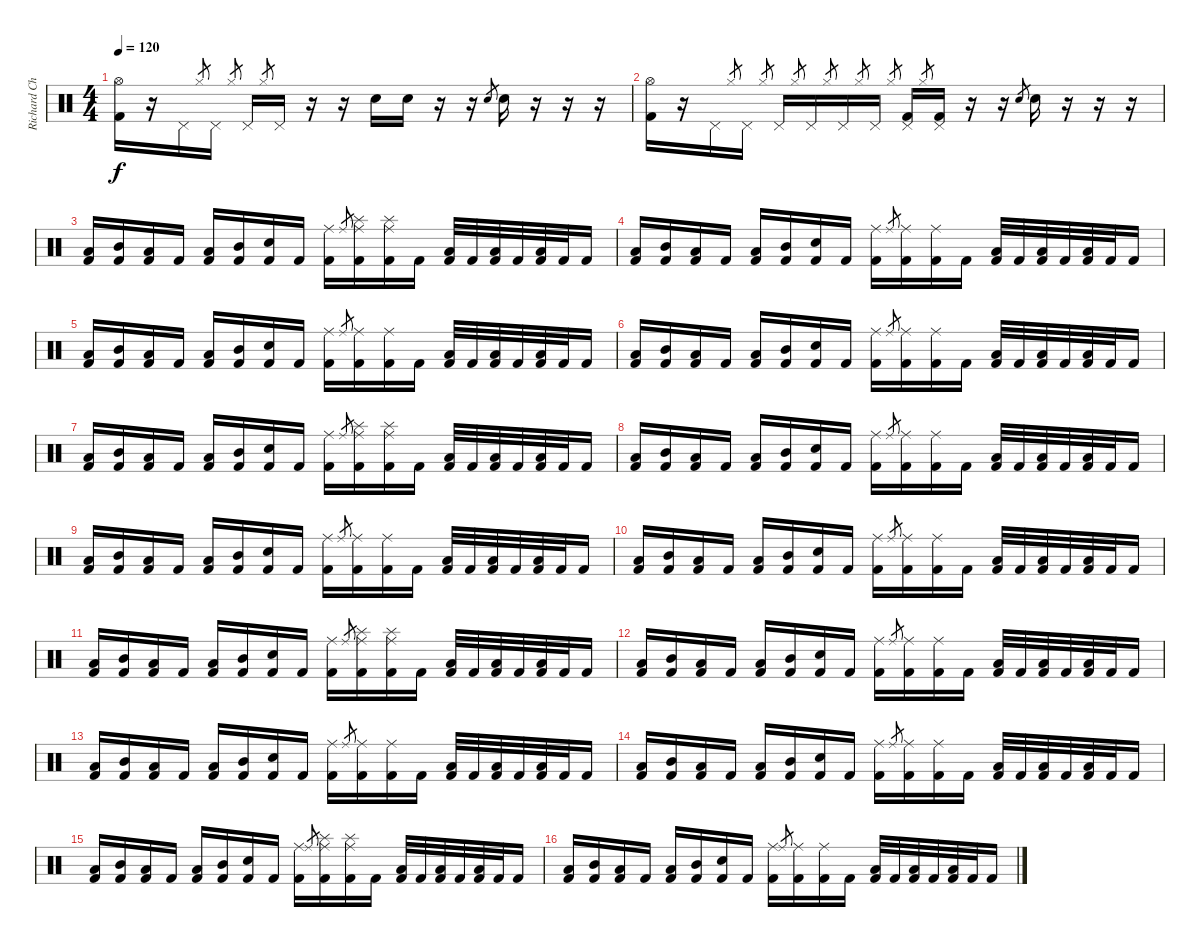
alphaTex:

\track ("Richard Christy" "Richard Ch") {instrument percussion}
\staff {score}
\articulation defaults
\ts (4 4)
\tempo 120
\clef neutral
\ks c
("Hi-Hat (open)" "Kick (hit) 2").16{dy f} r.16 "Pedal Hi-Hat (hit)".16 "Hi-Hat (closed)".8{gr} "Pedal Hi-Hat (hit)".16 "Hi-Hat (closed)".8{gr} "Pedal Hi-Hat (hit)".16 "Hi-Hat (closed)".8{gr} "Pedal Hi-Hat (hit)".16 r.16 r.16 "Snare (hit) 2".16 "Snare (hit) 2".16 r.16 r.16 "Snare (hit) 2".8{gr} "Snare (hit) 2".16 r.16 r.16 r.16 |
("Hi-Hat (open)" "Kick (hit) 2").16 r.16 "Pedal Hi-Hat (hit)".16 "Hi-Hat (closed)".8{gr} "Pedal Hi-Hat (hit)".16 "Hi-Hat (closed)".8{gr} "Pedal Hi-Hat (hit)".16 "Hi-Hat (closed)".8{gr} "Pedal Hi-Hat (hit)".16 "Hi-Hat (closed)".8{gr} "Pedal Hi-Hat (hit)".16 "Hi-Hat (closed)".8{gr} "Pedal Hi-Hat (hit)".16 "Hi-Hat (closed)".8{gr} ("Pedal Hi-Hat (hit)" "Kick (hit) 2").16 "Hi-Hat (closed)".8{gr} ("Pedal Hi-Hat (hit)" "Kick (hit) 2").16 r.16 r.16 "Snare (hit) 2".8{gr} "Snare (hit) 2".16 r.16 r.16 r.16 |
("Low Tom (hit)" "Kick (hit) 2").16 ("Mid Tom (hit)" "Kick (hit) 2").16 ("Low Tom (hit)" "Kick (hit) 2").16 "Kick (hit) 2".16 ("Low Tom (hit)" "Kick (hit) 2").16 ("Mid Tom (hit)" "Kick (hit) 2").16 ("Snare (hit) 2" "Kick (hit) 2").16 "Kick (hit) 2".16 ("Ride (middle)" "Kick (hit) 2").16 "Ride (middle)".8{gr} ("Ride (middle)" "Splash (hit)" "Kick (hit) 2").16 ("Ride (middle)" "Splash (hit)" "Kick (hit) 2").16 "Kick (hit) 2".16 ("Low Tom (hit)" "Kick (hit) 2").32 "Kick (hit) 2".32 ("Low Tom (hit)" "Kick (hit) 2").32 "Kick (hit) 2".32 ("Low Tom (hit)" "Kick (hit) 2").32 "Kick (hit) 2".32 "Kick (hit) 2".16 |
("Low Tom (hit)" "Kick (hit) 2").16 ("Mid Tom (hit)" "Kick (hit) 2").16 ("Low Tom (hit)" "Kick (hit) 2").16 "Kick (hit) 2".16 ("Low Tom (hit)" "Kick (hit) 2").16 ("Mid Tom (hit)" "Kick (hit) 2").16 ("Snare (hit) 2" "Kick (hit) 2").16 "Kick (hit) 2".16 ("Ride (middle)" "Kick (hit) 2").16 "Ride (middle)".8{gr} ("Ride (middle)" "Kick (hit) 2").16 ("Ride (middle)" "Kick (hit) 2").16 "Kick (hit) 2".16 ("Low Tom (hit)" "Kick (hit) 2").32 "Kick (hit) 2".32 ("Low Tom (hit)" "Kick (hit) 2").32 "Kick (hit) 2".32 ("Low Tom (hit)" "Kick (hit) 2").32 "Kick (hit) 2".32 "Kick (hit) 2".16 |
("Low Tom (hit)" "Kick (hit) 2").16 ("Mid Tom (hit)" "Kick (hit) 2").16 ("Low Tom (hit)" "Kick (hit) 2").16 "Kick (hit) 2".16 ("Low Tom (hit)" "Kick (hit) 2").16 ("Mid Tom (hit)" "Kick (hit) 2").16 ("Snare (hit) 2" "Kick (hit) 2").16 "Kick (hit) 2".16 ("Ride (middle)" "Kick (hit) 2").16 "Ride (middle)".8{gr} ("Ride (middle)" "Kick (hit) 2").16 ("Ride (middle)" "Kick (hit) 2").16 "Kick (hit) 2".16 ("Low Tom (hit)" "Kick (hit) 2").32 "Kick (hit) 2".32 ("Low Tom (hit)" "Kick (hit) 2").32 "Kick (hit) 2".32 ("Low Tom (hit)" "Kick (hit) 2").32 "Kick (hit) 2".32 "Kick (hit) 2".16 |
("Low Tom (hit)" "Kick (hit) 2").16 ("Mid Tom (hit)" "Kick (hit) 2").16 ("Low Tom (hit)" "Kick (hit) 2").16 "Kick (hit) 2".16 ("Low Tom (hit)" "Kick (hit) 2").16 ("Mid Tom (hit)" "Kick (hit) 2").16 ("Snare (hit) 2" "Kick (hit) 2").16 "Kick (hit) 2".16 ("Ride (middle)" "Kick (hit) 2").16 "Ride (middle)".8{gr} ("Ride (middle)" "Kick (hit) 2").16 ("Ride (middle)" "Kick (hit) 2").16 "Kick (hit) 2".16 ("Low Tom (hit)" "Kick (hit) 2").32 "Kick (hit) 2".32 ("Low Tom (hit)" "Kick (hit) 2").32 "Kick (hit) 2".32 ("Low Tom (hit)" "Kick (hit) 2").32 "Kick (hit) 2".32 "Kick (hit) 2".16 |
("Low Tom (hit)" "Kick (hit) 2").16 ("Mid Tom (hit)" "Kick (hit) 2").16 ("Low Tom (hit)" "Kick (hit) 2").16 "Kick (hit) 2".16 ("Low Tom (hit)" "Kick (hit) 2").16 ("Mid Tom (hit)" "Kick (hit) 2").16 ("Snare (hit) 2" "Kick (hit) 2").16 "Kick (hit) 2".16 ("Ride (middle)" "Kick (hit) 2").16 "Ride (middle)".8{gr} ("Ride (middle)" "Splash (hit)" "Kick (hit) 2").16 ("Ride (middle)" "Splash (hit)" "Kick (hit) 2").16 "Kick (hit) 2".16 ("Low Tom (hit)" "Kick (hit) 2").32 "Kick (hit) 2".32 ("Low Tom (hit)" "Kick (hit) 2").32 "Kick (hit) 2".32 ("Low Tom (hit)" "Kick (hit) 2").32 "Kick (hit) 2".32 "Kick (hit) 2".16 |
("Low Tom (hit)" "Kick (hit) 2").16 ("Mid Tom (hit)" "Kick (hit) 2").16 ("Low Tom (hit)" "Kick (hit) 2").16 "Kick (hit) 2".16 ("Low Tom (hit)" "Kick (hit) 2").16 ("Mid Tom (hit)" "Kick (hit) 2").16 ("Snare (hit) 2" "Kick (hit) 2").16 "Kick (hit) 2".16 ("Ride (middle)" "Kick (hit) 2").16 "Ride (middle)".8{gr} ("Ride (middle)" "Kick (hit) 2").16 ("Ride (middle)" "Kick (hit) 2").16 "Kick (hit) 2".16 ("Low Tom (hit)" "Kick (hit) 2").32 "Kick (hit) 2".32 ("Low Tom (hit)" "Kick (hit) 2").32 "Kick (hit) 2".32 ("Low Tom (hit)" "Kick (hit) 2").32 "Kick (hit) 2".32 "Kick (hit) 2".16 |
("Low Tom (hit)" "Kick (hit) 2").16 ("Mid Tom (hit)" "Kick (hit) 2").16 ("Low Tom (hit)" "Kick (hit) 2").16 "Kick (hit) 2".16 ("Low Tom (hit)" "Kick (hit) 2").16 ("Mid Tom (hit)" "Kick (hit) 2").16 ("Snare (hit) 2" "Kick (hit) 2").16 "Kick (hit) 2".16 ("Ride (middle)" "Kick (hit) 2").16 "Ride (middle)".8{gr} ("Ride (middle)" "Kick (hit) 2").16 ("Ride (middle)" "Kick (hit) 2").16 "Kick (hit) 2".16 ("Low Tom (hit)" "Kick (hit) 2").32 "Kick (hit) 2".32 ("Low Tom (hit)" "Kick (hit) 2").32 "Kick (hit) 2".32 ("Low Tom (hit)" "Kick (hit) 2").32 "Kick (hit) 2".32 "Kick (hit) 2".16 |
("Low Tom (hit)" "Kick (hit) 2").16 ("Mid Tom (hit)" "Kick (hit) 2").16 ("Low Tom (hit)" "Kick (hit) 2").16 "Kick (hit) 2".16 ("Low Tom (hit)" "Kick (hit) 2").16 ("Mid Tom (hit)" "Kick (hit) 2").16 ("Snare (hit) 2" "Kick (hit) 2").16 "Kick (hit) 2".16 ("Ride (middle)" "Kick (hit) 2").16 "Ride (middle)".8{gr} ("Ride (middle)" "Kick (hit) 2").16 ("Ride (middle)" "Kick (hit) 2").16 "Kick (hit) 2".16 ("Low Tom (hit)" "Kick (hit) 2").32 "Kick (hit) 2".32 ("Low Tom (hit)" "Kick (hit) 2").32 "Kick (hit) 2".32 ("Low Tom (hit)" "Kick (hit) 2").32 "Kick (hit) 2".32 "Kick (hit) 2".16 |
("Low Tom (hit)" "Kick (hit) 2").16 ("Mid Tom (hit)" "Kick (hit) 2").16 ("Low Tom (hit)" "Kick (hit) 2").16 "Kick (hit) 2".16 ("Low Tom (hit)" "Kick (hit) 2").16 ("Mid Tom (hit)" "Kick (hit) 2").16 ("Snare (hit) 2" "Kick (hit) 2").16 "Kick (hit) 2".16 ("Ride (middle)" "Kick (hit) 2").16 "Ride (middle)".8{gr} ("Ride (middle)" "Splash (hit)" "Kick (hit) 2").16 ("Ride (middle)" "Splash (hit)" "Kick (hit) 2").16 "Kick (hit) 2".16 ("Low Tom (hit)" "Kick (hit) 2").32 "Kick (hit) 2".32 ("Low Tom (hit)" "Kick (hit) 2").32 "Kick (hit) 2".32 ("Low Tom (hit)" "Kick (hit) 2").32 "Kick (hit) 2".32 "Kick (hit) 2".16 |
("Low Tom (hit)" "Kick (hit) 2").16 ("Mid Tom (hit)" "Kick (hit) 2").16 ("Low Tom (hit)" "Kick (hit) 2").16 "Kick (hit) 2".16 ("Low Tom (hit)" "Kick (hit) 2").16 ("Mid Tom (hit)" "Kick (hit) 2").16 ("Snare (hit) 2" "Kick (hit) 2").16 "Kick (hit) 2".16 ("Ride (middle)" "Kick (hit) 2").16 "Ride (middle)".8{gr} ("Ride (middle)" "Kick (hit) 2").16 ("Ride (middle)" "Kick (hit) 2").16 "Kick (hit) 2".16 ("Low Tom (hit)" "Kick (hit) 2").32 "Kick (hit) 2".32 ("Low Tom (hit)" "Kick (hit) 2").32 "Kick (hit) 2".32 ("Low Tom (hit)" "Kick (hit) 2").32 "Kick (hit) 2".32 "Kick (hit) 2".16 |
("Low Tom (hit)" "Kick (hit) 2").16 ("Mid Tom (hit)" "Kick (hit) 2").16 ("Low Tom (hit)" "Kick (hit) 2").16 "Kick (hit) 2".16 ("Low Tom (hit)" "Kick (hit) 2").16 ("Mid Tom (hit)" "Kick (hit) 2").16 ("Snare (hit) 2" "Kick (hit) 2").16 "Kick (hit) 2".16 ("Ride (middle)" "Kick (hit) 2").16 "Ride (middle)".8{gr} ("Ride (middle)" "Kick (hit) 2").16 ("Ride (middle)" "Kick (hit) 2").16 "Kick (hit) 2".16 ("Low Tom (hit)" "Kick (hit) 2").32 "Kick (hit) 2".32 ("Low Tom (hit)" "Kick (hit) 2").32 "Kick (hit) 2".32 ("Low Tom (hit)" "Kick (hit) 2").32 "Kick (hit) 2".32 "Kick (hit) 2".16 |
("Low Tom (hit)" "Kick (hit) 2").16 ("Mid Tom (hit)" "Kick (hit) 2").16 ("Low Tom (hit)" "Kick (hit) 2").16 "Kick (hit) 2".16 ("Low Tom (hit)" "Kick (hit) 2").16 ("Mid Tom (hit)" "Kick (hit) 2").16 ("Snare (hit) 2" "Kick (hit) 2").16 "Kick (hit) 2".16 ("Ride (middle)" "Kick (hit) 2").16 "Ride (middle)".8{gr} ("Ride (middle)" "Kick (hit) 2").16 ("Ride (middle)" "Kick (hit) 2").16 "Kick (hit) 2".16 ("Low Tom (hit)" "Kick (hit) 2").32 "Kick (hit) 2".32 ("Low Tom (hit)" "Kick (hit) 2").32 "Kick (hit) 2".32 ("Low Tom (hit)" "Kick (hit) 2").32 "Kick (hit) 2".32 "Kick (hit) 2".16 |
("Low Tom (hit)" "Kick (hit) 2").16 ("Mid Tom (hit)" "Kick (hit) 2").16 ("Low Tom (hit)" "Kick (hit) 2").16 "Kick (hit) 2".16 ("Low Tom (hit)" "Kick (hit) 2").16 ("Mid Tom (hit)" "Kick (hit) 2").16 ("Snare (hit) 2" "Kick (hit) 2").16 "Kick (hit) 2".16 ("Ride (middle)" "Kick (hit) 2").16 "Ride (middle)".8{gr} ("Ride (middle)" "Splash (hit)" "Kick (hit) 2").16 ("Ride (middle)" "Splash (hit)" "Kick (hit) 2").16 "Kick (hit) 2".16 ("Low Tom (hit)" "Kick (hit) 2").32 "Kick (hit) 2".32 ("Low Tom (hit)" "Kick (hit) 2").32 "Kick (hit) 2".32 ("Low Tom (hit)" "Kick (hit) 2").32 "Kick (hit) 2".32 "Kick (hit) 2".16 |
("Low Tom (hit)" "Kick (hit) 2").16 ("Mid Tom (hit)" "Kick (hit) 2").16 ("Low Tom (hit)" "Kick (hit) 2").16 "Kick (hit) 2".16 ("Low Tom (hit)" "Kick (hit) 2").16 ("Mid Tom (hit)" "Kick (hit) 2").16 ("Snare (hit) 2" "Kick (hit) 2").16 "Kick (hit) 2".16 ("Ride (middle)" "Kick (hit) 2").16 "Ride (middle)".8{gr} ("Ride (middle)" "Kick (hit) 2").16 ("Ride (middle)" "Kick (hit) 2").16 "Kick (hit) 2".16 ("Low Tom (hit)" "Kick (hit) 2").32 "Kick (hit) 2".32 ("Low Tom (hit)" "Kick (hit) 2").32 "Kick (hit) 2".32 ("Low Tom (hit)" "Kick (hit) 2").32 "Kick (hit) 2".32 "Kick (hit) 2".16
